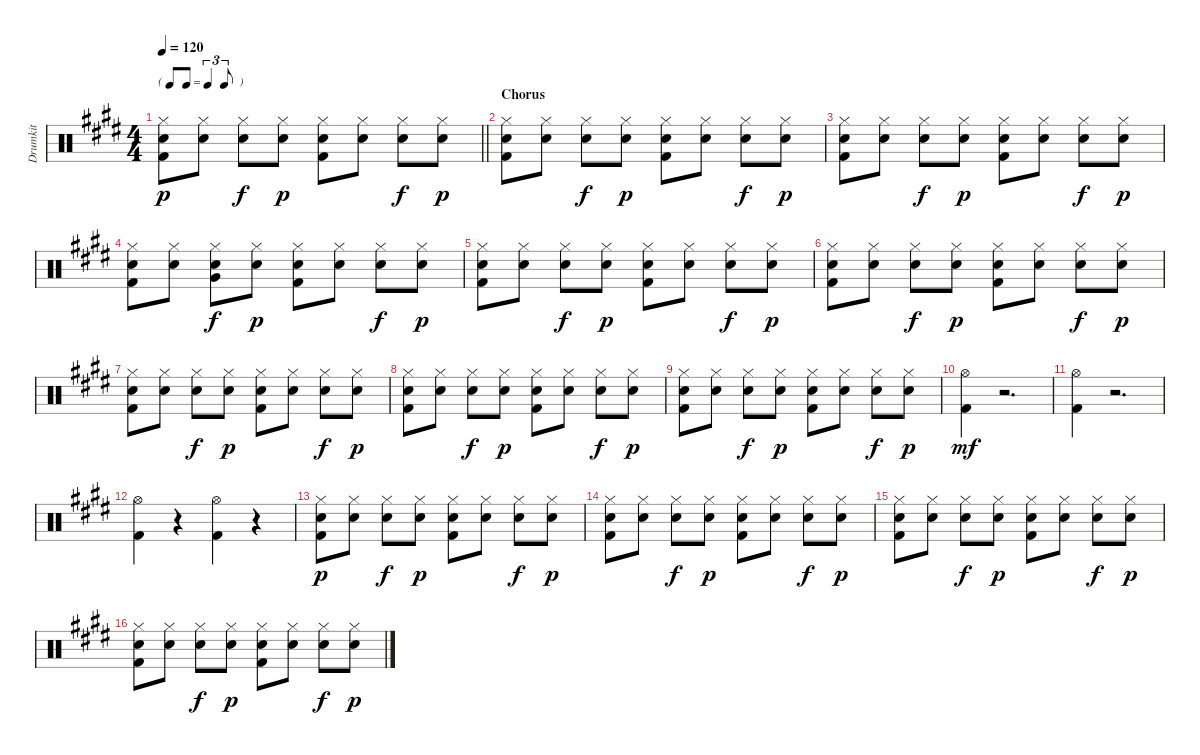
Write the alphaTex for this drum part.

\track ("Drumkit" "Drumkit") {instrument percussion}
\staff {score}
\articulation defaults
\ts (4 4)
\tf triplet8th
\tempo 120
\clef neutral
\barLineRight lightlight
\ks e
("Hi-Hat (closed)" "Snare (hit) 2" "Kick (hit) 2").8{dy p} ("Hi-Hat (closed)" "Snare (hit) 2").8 ("Hi-Hat (closed)" "Snare (hit) 2").8{dy f} ("Hi-Hat (closed)" "Snare (hit) 2").8{dy p} ("Hi-Hat (closed)" "Snare (hit) 2" "Kick (hit) 2").8 ("Hi-Hat (closed)" "Snare (hit) 2").8 ("Hi-Hat (closed)" "Snare (hit) 2").8{dy f} ("Hi-Hat (closed)" "Snare (hit) 2").8{dy p} |
\section ("" "Chorus")
("Hi-Hat (closed)" "Snare (hit) 2" "Kick (hit) 2").8 ("Hi-Hat (closed)" "Snare (hit) 2").8 ("Hi-Hat (closed)" "Snare (hit) 2").8{dy f} ("Hi-Hat (closed)" "Snare (hit) 2").8{dy p} ("Hi-Hat (closed)" "Snare (hit) 2" "Kick (hit) 2").8 ("Hi-Hat (closed)" "Snare (hit) 2").8 ("Hi-Hat (closed)" "Snare (hit) 2").8{dy f} ("Hi-Hat (closed)" "Snare (hit) 2").8{dy p} |
("Hi-Hat (closed)" "Snare (hit) 2" "Kick (hit) 2").8 ("Hi-Hat (closed)" "Snare (hit) 2").8 ("Hi-Hat (closed)" "Snare (hit) 2").8{dy f} ("Hi-Hat (closed)" "Snare (hit) 2").8{dy p} ("Hi-Hat (closed)" "Snare (hit) 2" "Kick (hit) 2").8 ("Hi-Hat (closed)" "Snare (hit) 2").8 ("Hi-Hat (closed)" "Snare (hit) 2").8{dy f} ("Hi-Hat (closed)" "Snare (hit) 2").8{dy p} |
("Hi-Hat (closed)" "Snare (hit) 2" "Kick (hit) 2").8 ("Hi-Hat (closed)" "Snare (hit) 2").8 ("Hi-Hat (closed)" "Snare (hit) 2" "Very Low Tom (hit)").8{dy f} ("Hi-Hat (closed)" "Snare (hit) 2").8{dy p} ("Hi-Hat (closed)" "Snare (hit) 2" "Kick (hit) 2").8 ("Hi-Hat (closed)" "Snare (hit) 2").8 ("Hi-Hat (closed)" "Snare (hit) 2").8{dy f} ("Hi-Hat (closed)" "Snare (hit) 2").8{dy p} |
("Hi-Hat (closed)" "Snare (hit) 2" "Kick (hit) 2").8 ("Hi-Hat (closed)" "Snare (hit) 2").8 ("Hi-Hat (closed)" "Snare (hit) 2").8{dy f} ("Hi-Hat (closed)" "Snare (hit) 2").8{dy p} ("Hi-Hat (closed)" "Snare (hit) 2" "Kick (hit) 2").8 ("Hi-Hat (closed)" "Snare (hit) 2").8 ("Hi-Hat (closed)" "Snare (hit) 2").8{dy f} ("Hi-Hat (closed)" "Snare (hit) 2").8{dy p} |
("Hi-Hat (closed)" "Snare (hit) 2" "Kick (hit) 2").8 ("Hi-Hat (closed)" "Snare (hit) 2").8 ("Hi-Hat (closed)" "Snare (hit) 2").8{dy f} ("Hi-Hat (closed)" "Snare (hit) 2").8{dy p} ("Hi-Hat (closed)" "Snare (hit) 2" "Kick (hit) 2").8 ("Hi-Hat (closed)" "Snare (hit) 2").8 ("Hi-Hat (closed)" "Snare (hit) 2").8{dy f} ("Hi-Hat (closed)" "Snare (hit) 2").8{dy p} |
("Hi-Hat (closed)" "Snare (hit) 2" "Kick (hit) 2").8 ("Hi-Hat (closed)" "Snare (hit) 2").8 ("Hi-Hat (closed)" "Snare (hit) 2").8{dy f} ("Hi-Hat (closed)" "Snare (hit) 2").8{dy p} ("Hi-Hat (closed)" "Snare (hit) 2" "Kick (hit) 2").8 ("Hi-Hat (closed)" "Snare (hit) 2").8 ("Hi-Hat (closed)" "Snare (hit) 2").8{dy f} ("Hi-Hat (closed)" "Snare (hit) 2").8{dy p} |
("Hi-Hat (closed)" "Snare (hit) 2" "Kick (hit) 2").8 ("Hi-Hat (closed)" "Snare (hit) 2").8 ("Hi-Hat (closed)" "Snare (hit) 2").8{dy f} ("Hi-Hat (closed)" "Snare (hit) 2").8{dy p} ("Hi-Hat (closed)" "Snare (hit) 2" "Kick (hit) 2").8 ("Hi-Hat (closed)" "Snare (hit) 2").8 ("Hi-Hat (closed)" "Snare (hit) 2").8{dy f} ("Hi-Hat (closed)" "Snare (hit) 2").8{dy p} |
("Hi-Hat (closed)" "Snare (hit) 2" "Kick (hit) 2").8 ("Hi-Hat (closed)" "Snare (hit) 2").8 ("Hi-Hat (closed)" "Snare (hit) 2").8{dy f} ("Hi-Hat (closed)" "Snare (hit) 2").8{dy p} ("Hi-Hat (closed)" "Snare (hit) 2" "Kick (hit) 2").8 ("Hi-Hat (closed)" "Snare (hit) 2").8 ("Hi-Hat (closed)" "Snare (hit) 2").8{dy f} ("Hi-Hat (closed)" "Snare (hit) 2").8{dy p} |
("Kick (hit) 2" "Hi-Hat (open)").4{dy mf} r.2{d} |
("Kick (hit) 2" "Hi-Hat (open)").4 r.2{d} |
("Kick (hit) 2" "Hi-Hat (open)").4 r.4 ("Kick (hit) 2" "Hi-Hat (open)").4 r.4 |
("Hi-Hat (closed)" "Snare (hit) 2" "Kick (hit) 2").8{dy p} ("Hi-Hat (closed)" "Snare (hit) 2").8 ("Hi-Hat (closed)" "Snare (hit) 2").8{dy f} ("Hi-Hat (closed)" "Snare (hit) 2").8{dy p} ("Hi-Hat (closed)" "Snare (hit) 2" "Kick (hit) 2").8 ("Hi-Hat (closed)" "Snare (hit) 2").8 ("Hi-Hat (closed)" "Snare (hit) 2").8{dy f} ("Hi-Hat (closed)" "Snare (hit) 2").8{dy p} |
("Hi-Hat (closed)" "Snare (hit) 2" "Kick (hit) 2").8 ("Hi-Hat (closed)" "Snare (hit) 2").8 ("Hi-Hat (closed)" "Snare (hit) 2").8{dy f} ("Hi-Hat (closed)" "Snare (hit) 2").8{dy p} ("Hi-Hat (closed)" "Snare (hit) 2" "Kick (hit) 2").8 ("Hi-Hat (closed)" "Snare (hit) 2").8 ("Hi-Hat (closed)" "Snare (hit) 2").8{dy f} ("Hi-Hat (closed)" "Snare (hit) 2").8{dy p} |
("Hi-Hat (closed)" "Snare (hit) 2" "Kick (hit) 2").8 ("Hi-Hat (closed)" "Snare (hit) 2").8 ("Hi-Hat (closed)" "Snare (hit) 2").8{dy f} ("Hi-Hat (closed)" "Snare (hit) 2").8{dy p} ("Hi-Hat (closed)" "Snare (hit) 2" "Kick (hit) 2").8 ("Hi-Hat (closed)" "Snare (hit) 2").8 ("Hi-Hat (closed)" "Snare (hit) 2").8{dy f} ("Hi-Hat (closed)" "Snare (hit) 2").8{dy p} |
("Hi-Hat (closed)" "Snare (hit) 2" "Kick (hit) 2").8 ("Hi-Hat (closed)" "Snare (hit) 2").8 ("Hi-Hat (closed)" "Snare (hit) 2").8{dy f} ("Hi-Hat (closed)" "Snare (hit) 2").8{dy p} ("Hi-Hat (closed)" "Snare (hit) 2" "Kick (hit) 2").8 ("Hi-Hat (closed)" "Snare (hit) 2").8 ("Hi-Hat (closed)" "Snare (hit) 2").8{dy f} ("Hi-Hat (closed)" "Snare (hit) 2").8{dy p}
